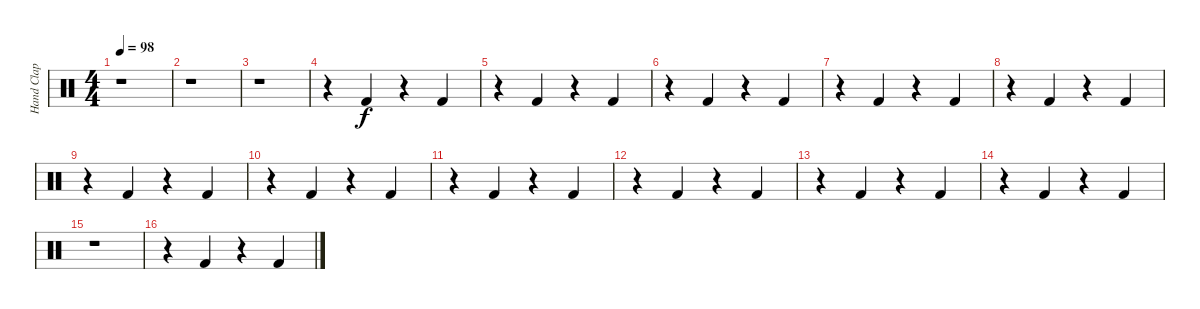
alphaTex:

\track ("Hand Clap" "Hand Clap") {instrument percussion}
\staff {score}
\articulation defaults
\ts (4 4)
\tempo 98
\clef neutral
\ks c
r.1{dy f} |
r.1 |
r.1 |
r.4 "Kick (hit) 2".4 r.4 "Kick (hit) 2".4 |
r.4 "Kick (hit) 2".4 r.4 "Kick (hit) 2".4 |
r.4 "Kick (hit) 2".4 r.4 "Kick (hit) 2".4 |
r.4 "Kick (hit) 2".4 r.4 "Kick (hit) 2".4 |
r.4 "Kick (hit) 2".4 r.4 "Kick (hit) 2".4 |
r.4 "Kick (hit) 2".4 r.4 "Kick (hit) 2".4 |
r.4 "Kick (hit) 2".4 r.4 "Kick (hit) 2".4 |
r.4 "Kick (hit) 2".4 r.4 "Kick (hit) 2".4 |
r.4 "Kick (hit) 2".4 r.4 "Kick (hit) 2".4 |
r.4 "Kick (hit) 2".4 r.4 "Kick (hit) 2".4 |
r.4 "Kick (hit) 2".4 r.4 "Kick (hit) 2".4 |
r.1 |
r.4 "Kick (hit) 2".4 r.4 "Kick (hit) 2".4
